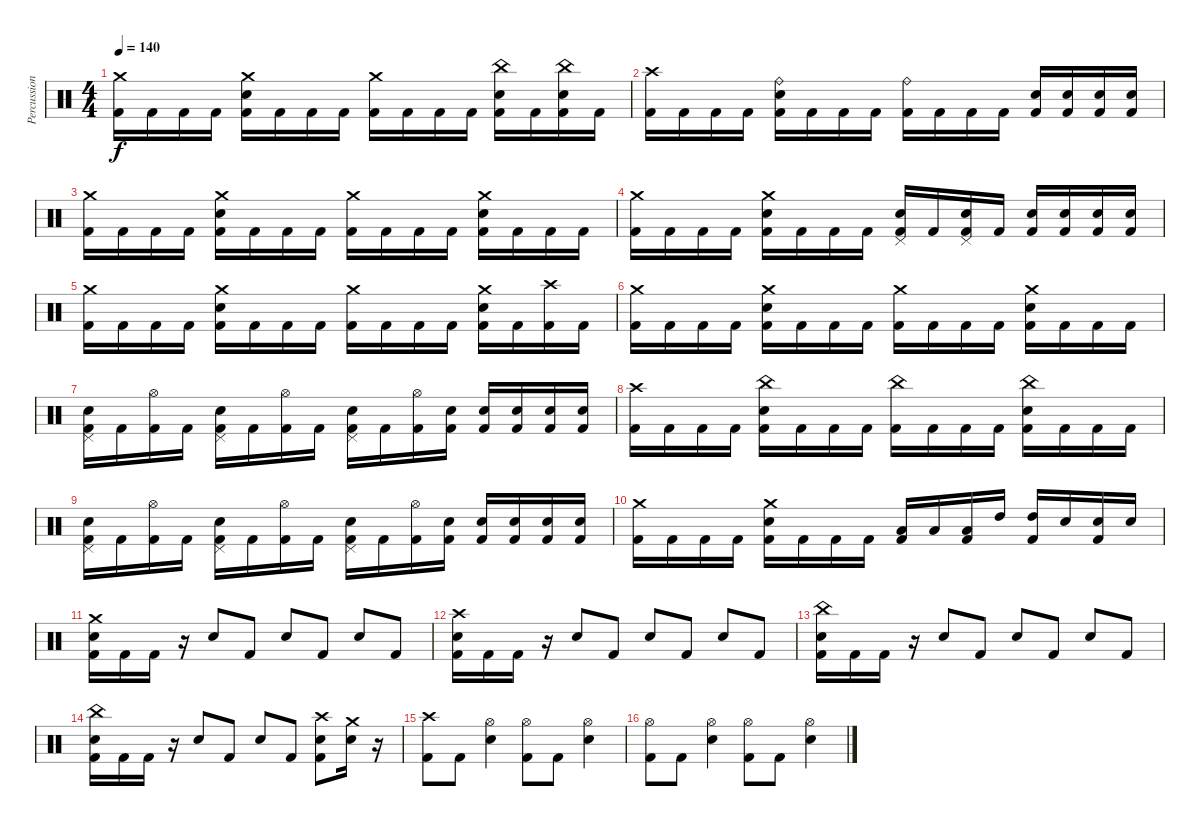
\track ("Percussion" "Percussion") {instrument percussion}
\staff {score}
\articulation defaults
\ts (4 4)
\tempo 140
\clef neutral
\ks c
("Crash medium (hit)" "Kick (hit) 2").16{dy f} "Kick (hit) 2".16 "Kick (hit) 2".16 "Kick (hit) 2".16 ("Crash medium (hit)" "Snare (hit) 2" "Kick (hit) 2").16 "Kick (hit) 2".16 "Kick (hit) 2".16 "Kick (hit) 2".16 ("Crash medium (hit)" "Kick (hit) 2").16 "Kick (hit) 2".16 "Kick (hit) 2".16 "Kick (hit) 2".16 ("China (hit)" "Snare (hit) 2" "Kick (hit) 2").16 "Kick (hit) 2".16 ("China (hit)" "Snare (hit) 2" "Kick (hit) 2").16 "Kick (hit) 2".16 |
("Crash high (hit)" "Kick (hit) 2").16 "Kick (hit) 2".16 "Kick (hit) 2".16 "Kick (hit) 2".16 ("Ride (bell)" "Snare (hit) 2" "Kick (hit) 2").16 "Kick (hit) 2".16 "Kick (hit) 2".16 "Kick (hit) 2".16 ("Ride (bell)" "Kick (hit) 2").16 "Kick (hit) 2".16 "Kick (hit) 2".16 "Kick (hit) 2".16 ("Snare (hit) 2" "Kick (hit) 2").16 ("Snare (hit) 2" "Kick (hit) 2").16 ("Snare (hit) 2" "Kick (hit) 2").16 ("Snare (hit) 2" "Kick (hit) 2").16 |
("Crash medium (hit)" "Kick (hit) 2").16 "Kick (hit) 2".16 "Kick (hit) 2".16 "Kick (hit) 2".16 ("Crash medium (hit)" "Snare (hit) 2" "Kick (hit) 2").16 "Kick (hit) 2".16 "Kick (hit) 2".16 "Kick (hit) 2".16 ("Crash medium (hit)" "Kick (hit) 2").16 "Kick (hit) 2".16 "Kick (hit) 2".16 "Kick (hit) 2".16 ("Crash medium (hit)" "Snare (hit) 2" "Kick (hit) 2").16 "Kick (hit) 2".16 "Kick (hit) 2".16 "Kick (hit) 2".16 |
("Crash medium (hit)" "Kick (hit) 2").16 "Kick (hit) 2".16 "Kick (hit) 2".16 "Kick (hit) 2".16 ("Crash medium (hit)" "Snare (hit) 2" "Kick (hit) 2").16 "Kick (hit) 2".16 "Kick (hit) 2".16 "Kick (hit) 2".16 ("Pedal Hi-Hat (hit)" "Snare (hit) 2" "Kick (hit) 2").16 "Kick (hit) 2".16 ("Pedal Hi-Hat (hit)" "Snare (hit) 2" "Kick (hit) 2").16 "Kick (hit) 2".16 ("Snare (hit) 2" "Kick (hit) 2").16 ("Snare (hit) 2" "Kick (hit) 2").16 ("Snare (hit) 2" "Kick (hit) 2").16 ("Snare (hit) 2" "Kick (hit) 2").16 |
("Crash medium (hit)" "Kick (hit) 2").16 "Kick (hit) 2".16 "Kick (hit) 2".16 "Kick (hit) 2".16 ("Crash medium (hit)" "Snare (hit) 2" "Kick (hit) 2").16 "Kick (hit) 2".16 "Kick (hit) 2".16 "Kick (hit) 2".16 ("Crash medium (hit)" "Kick (hit) 2").16 "Kick (hit) 2".16 "Kick (hit) 2".16 "Kick (hit) 2".16 ("Crash medium (hit)" "Snare (hit) 2" "Kick (hit) 2").16 "Kick (hit) 2".16 ("Crash high (hit)" "Kick (hit) 2").16 "Kick (hit) 2".16 |
("Crash medium (hit)" "Kick (hit) 2").16 "Kick (hit) 2".16 "Kick (hit) 2".16 "Kick (hit) 2".16 ("Crash medium (hit)" "Snare (hit) 2" "Kick (hit) 2").16 "Kick (hit) 2".16 "Kick (hit) 2".16 "Kick (hit) 2".16 ("Crash medium (hit)" "Kick (hit) 2").16 "Kick (hit) 2".16 "Kick (hit) 2".16 "Kick (hit) 2".16 ("Crash medium (hit)" "Snare (hit) 2" "Kick (hit) 2").16 "Kick (hit) 2".16 "Kick (hit) 2".16 "Kick (hit) 2".16 |
("Pedal Hi-Hat (hit)" "Snare (hit) 2" "Kick (hit) 2").16 "Kick (hit) 2".16 ("Hi-Hat (open)" "Kick (hit) 2").16 "Kick (hit) 2".16 ("Pedal Hi-Hat (hit)" "Snare (hit) 2" "Kick (hit) 2").16 "Kick (hit) 2".16 ("Hi-Hat (open)" "Kick (hit) 2").16 "Kick (hit) 2".16 ("Pedal Hi-Hat (hit)" "Snare (hit) 2" "Kick (hit) 2").16 "Kick (hit) 2".16 ("Hi-Hat (open)" "Kick (hit) 2").16 ("Snare (hit) 2" "Kick (hit) 2").16 ("Snare (hit) 2" "Kick (hit) 2").16 ("Snare (hit) 2" "Kick (hit) 2").16 ("Snare (hit) 2" "Kick (hit) 2").16 ("Snare (hit) 2" "Kick (hit) 2").16 |
("Crash high (hit)" "Kick (hit) 2").16 "Kick (hit) 2".16 "Kick (hit) 2".16 "Kick (hit) 2".16 ("China (hit)" "Snare (hit) 2" "Kick (hit) 2").16 "Kick (hit) 2".16 "Kick (hit) 2".16 "Kick (hit) 2".16 ("China (hit)" "Kick (hit) 2").16 "Kick (hit) 2".16 "Kick (hit) 2".16 "Kick (hit) 2".16 ("China (hit)" "Snare (hit) 2" "Kick (hit) 2").16 "Kick (hit) 2".16 "Kick (hit) 2".16 "Kick (hit) 2".16 |
("Pedal Hi-Hat (hit)" "Snare (hit) 2" "Kick (hit) 2").16 "Kick (hit) 2".16 ("Hi-Hat (open)" "Kick (hit) 2").16 "Kick (hit) 2".16 ("Pedal Hi-Hat (hit)" "Snare (hit) 2" "Kick (hit) 2").16 "Kick (hit) 2".16 ("Hi-Hat (open)" "Kick (hit) 2").16 "Kick (hit) 2".16 ("Pedal Hi-Hat (hit)" "Snare (hit) 2" "Kick (hit) 2").16 "Kick (hit) 2".16 ("Hi-Hat (open)" "Kick (hit) 2").16 ("Snare (hit) 2" "Kick (hit) 2").16 ("Snare (hit) 2" "Kick (hit) 2").16 ("Snare (hit) 2" "Kick (hit) 2").16 ("Snare (hit) 2" "Kick (hit) 2").16 ("Snare (hit) 2" "Kick (hit) 2").16 |
("Crash medium (hit)" "Kick (hit) 2").16 "Kick (hit) 2".16 "Kick (hit) 2".16 "Kick (hit) 2".16 ("Crash medium (hit)" "Snare (hit) 2" "Kick (hit) 2").16 "Kick (hit) 2".16 "Kick (hit) 2".16 "Kick (hit) 2".16 ("Low Tom (hit)" "Kick (hit) 2").16 "Low Tom (hit)".16 ("Low Tom (hit)" "Kick (hit) 2").16 "High Tom (hit)".16 ("High Tom (hit)" "Kick (hit) 2").16 "Snare (hit) 2".16 ("Snare (hit) 2" "Kick (hit) 2").16 "Snare (hit) 2".16 |
("Crash medium (hit)" "Snare (hit) 2" "Kick (hit) 2").16 "Kick (hit) 2".16 "Kick (hit) 2".16 r.16 "Snare (hit) 2".8 "Kick (hit) 2".8 "Snare (hit) 2".8 "Kick (hit) 2".8 "Snare (hit) 2".8 "Kick (hit) 2".8 |
("Crash high (hit)" "Snare (hit) 2" "Kick (hit) 2").16 "Kick (hit) 2".16 "Kick (hit) 2".16 r.16 "Snare (hit) 2".8 "Kick (hit) 2".8 "Snare (hit) 2".8 "Kick (hit) 2".8 "Snare (hit) 2".8 "Kick (hit) 2".8 |
("China (hit)" "Snare (hit) 2" "Kick (hit) 2").16 "Kick (hit) 2".16 "Kick (hit) 2".16 r.16 "Snare (hit) 2".8 "Kick (hit) 2".8 "Snare (hit) 2".8 "Kick (hit) 2".8 "Snare (hit) 2".8 "Kick (hit) 2".8 |
("China (hit)" "Snare (hit) 2" "Kick (hit) 2").16 "Kick (hit) 2".16 "Kick (hit) 2".16 r.16 "Snare (hit) 2".8 "Kick (hit) 2".8 "Snare (hit) 2".8 "Kick (hit) 2".8 ("Crash high (hit)" "Kick (hit) 2" "Snare (hit) 2").8 ("Crash medium (hit)" "Snare (hit) 2").16 r.16 |
("Crash high (hit)" "Kick (hit) 2").8 "Kick (hit) 2".8 ("Hi-Hat (open)" "Snare (hit) 2").4 ("Hi-Hat (open)" "Kick (hit) 2").8 "Kick (hit) 2".8 ("Hi-Hat (open)" "Snare (hit) 2").4 |
("Hi-Hat (open)" "Kick (hit) 2").8 "Kick (hit) 2".8 ("Hi-Hat (open)" "Snare (hit) 2").4 ("Hi-Hat (open)" "Kick (hit) 2").8 "Kick (hit) 2".8 ("Hi-Hat (open)" "Snare (hit) 2").4
